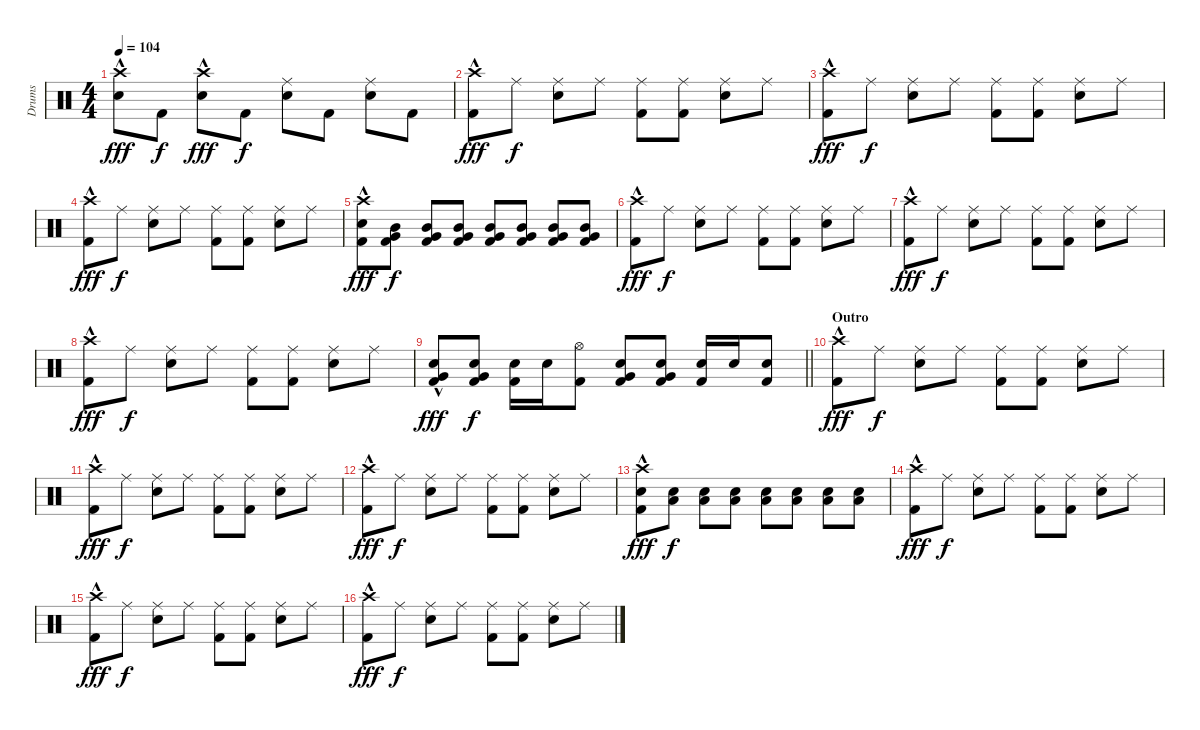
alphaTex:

\track ("Drums" "Drums") {instrument percussion}
\staff {score}
\articulation defaults
\ts (4 4)
\tempo 104
\clef neutral
\ks c
("Crash high (hit)"{hac} "Snare (hit) 2").8{dy fff} "Kick (hit) 2".8{dy f} ("Crash high (hit)"{hac} "Snare (hit) 2").8{dy fff} "Kick (hit) 2".8{dy f} ("Ride (middle)" "Snare (hit) 2").8 "Kick (hit) 2".8 ("Ride (middle)" "Snare (hit) 2").8 "Kick (hit) 2".8 |
("Crash high (hit)"{hac} "Kick (hit) 2").8{dy fff} "Ride (middle)".8{dy f} ("Ride (middle)" "Snare (hit) 2").8 "Ride (middle)".8 ("Ride (middle)" "Kick (hit) 2").8 ("Ride (middle)" "Kick (hit) 2").8 ("Ride (middle)" "Snare (hit) 2").8 "Ride (middle)".8 |
("Crash high (hit)"{hac} "Kick (hit) 2").8{dy fff} "Ride (middle)".8{dy f} ("Ride (middle)" "Snare (hit) 2").8 "Ride (middle)".8 ("Ride (middle)" "Kick (hit) 2").8 ("Ride (middle)" "Kick (hit) 2").8 ("Ride (middle)" "Snare (hit) 2").8 "Ride (middle)".8 |
("Crash high (hit)"{hac} "Kick (hit) 2").8{dy fff} "Ride (middle)".8{dy f} ("Ride (middle)" "Snare (hit) 2").8 "Ride (middle)".8 ("Ride (middle)" "Kick (hit) 2").8 ("Ride (middle)" "Kick (hit) 2").8 ("Ride (middle)" "Snare (hit) 2").8 "Ride (middle)".8 |
("Crash high (hit)"{hac} "Kick (hit) 2" "Snare (hit) 2").8{dy fff} ("Mid Tom (hit)" "Kick (hit) 2" "Very Low Tom (hit)").8{dy f} ("Mid Tom (hit)" "Kick (hit) 2" "Very Low Tom (hit)").8 ("Mid Tom (hit)" "Kick (hit) 2" "Very Low Tom (hit)").8 ("Mid Tom (hit)" "Kick (hit) 2" "Very Low Tom (hit)").8 ("Mid Tom (hit)" "Kick (hit) 2" "Very Low Tom (hit)").8 ("Mid Tom (hit)" "Kick (hit) 2" "Very Low Tom (hit)").8 ("Mid Tom (hit)" "Kick (hit) 2" "Very Low Tom (hit)").8 |
("Crash high (hit)"{hac} "Kick (hit) 2").8{dy fff} "Ride (middle)".8{dy f} ("Ride (middle)" "Snare (hit) 2").8 "Ride (middle)".8 ("Ride (middle)" "Kick (hit) 2").8 ("Ride (middle)" "Kick (hit) 2").8 ("Ride (middle)" "Snare (hit) 2").8 "Ride (middle)".8 |
("Crash high (hit)"{hac} "Kick (hit) 2").8{dy fff} "Ride (middle)".8{dy f} ("Ride (middle)" "Snare (hit) 2").8 "Ride (middle)".8 ("Ride (middle)" "Kick (hit) 2").8 ("Ride (middle)" "Kick (hit) 2").8 ("Ride (middle)" "Snare (hit) 2").8 "Ride (middle)".8 |
("Crash high (hit)"{hac} "Kick (hit) 2").8{dy fff} "Ride (middle)".8{dy f} ("Ride (middle)" "Snare (hit) 2").8 "Ride (middle)".8 ("Ride (middle)" "Kick (hit) 2").8 ("Ride (middle)" "Kick (hit) 2").8 ("Ride (middle)" "Snare (hit) 2").8 "Ride (middle)".8 |
\barLineRight lightlight
("Snare (hit) 2"{hac} "Very Low Tom (hit)" "Kick (hit) 2").8{dy fff} ("Snare (hit) 2" "Very Low Tom (hit)" "Kick (hit) 2").8{dy f} ("Snare (hit) 2" "Kick (hit) 2").16 "Snare (hit) 2".16 ("Hi-Hat (open)" "Kick (hit) 2").8 ("Snare (hit) 2" "Very Low Tom (hit)" "Kick (hit) 2").8 ("Snare (hit) 2" "Very Low Tom (hit)" "Kick (hit) 2").8 ("Snare (hit) 2" "Kick (hit) 2").16 "Snare (hit) 2".16 ("Snare (hit) 2" "Kick (hit) 2").8 |
\section ("" "Outro")
("Crash high (hit)"{hac} "Kick (hit) 2").8{dy fff} "Ride (middle)".8{dy f} ("Ride (middle)" "Snare (hit) 2").8 "Ride (middle)".8 ("Ride (middle)" "Kick (hit) 2").8 ("Ride (middle)" "Kick (hit) 2").8 ("Ride (middle)" "Snare (hit) 2").8 "Ride (middle)".8 |
("Crash high (hit)"{hac} "Kick (hit) 2").8{dy fff} "Ride (middle)".8{dy f} ("Ride (middle)" "Snare (hit) 2").8 "Ride (middle)".8 ("Ride (middle)" "Kick (hit) 2").8 ("Ride (middle)" "Kick (hit) 2").8 ("Ride (middle)" "Snare (hit) 2").8 "Ride (middle)".8 |
("Crash high (hit)"{hac} "Kick (hit) 2").8{dy fff} "Ride (middle)".8{dy f} ("Ride (middle)" "Snare (hit) 2").8 "Ride (middle)".8 ("Ride (middle)" "Kick (hit) 2").8 ("Ride (middle)" "Kick (hit) 2").8 ("Ride (middle)" "Snare (hit) 2").8 "Ride (middle)".8 |
("Crash high (hit)"{hac} "Snare (hit) 2" "Kick (hit) 2").8{dy fff} ("Snare (hit) 2" "Low Floor Tom (hit)").8{dy f} ("Snare (hit) 2" "Low Floor Tom (hit)").8 ("Snare (hit) 2" "Low Floor Tom (hit)").8 ("Snare (hit) 2" "Low Floor Tom (hit)").8 ("Snare (hit) 2" "Low Floor Tom (hit)").8 ("Snare (hit) 2" "Low Floor Tom (hit)").8 ("Snare (hit) 2" "Low Floor Tom (hit)").8 |
("Crash high (hit)"{hac} "Kick (hit) 2").8{dy fff} "Ride (middle)".8{dy f} ("Ride (middle)" "Snare (hit) 2").8 "Ride (middle)".8 ("Ride (middle)" "Kick (hit) 2").8 ("Ride (middle)" "Kick (hit) 2").8 ("Ride (middle)" "Snare (hit) 2").8 "Ride (middle)".8 |
("Crash high (hit)"{hac} "Kick (hit) 2").8{dy fff} "Ride (middle)".8{dy f} ("Ride (middle)" "Snare (hit) 2").8 "Ride (middle)".8 ("Ride (middle)" "Kick (hit) 2").8 ("Ride (middle)" "Kick (hit) 2").8 ("Ride (middle)" "Snare (hit) 2").8 "Ride (middle)".8 |
("Crash high (hit)"{hac} "Kick (hit) 2").8{dy fff} "Ride (middle)".8{dy f} ("Ride (middle)" "Snare (hit) 2").8 "Ride (middle)".8 ("Ride (middle)" "Kick (hit) 2").8 ("Ride (middle)" "Kick (hit) 2").8 ("Ride (middle)" "Snare (hit) 2").8 "Ride (middle)".8
